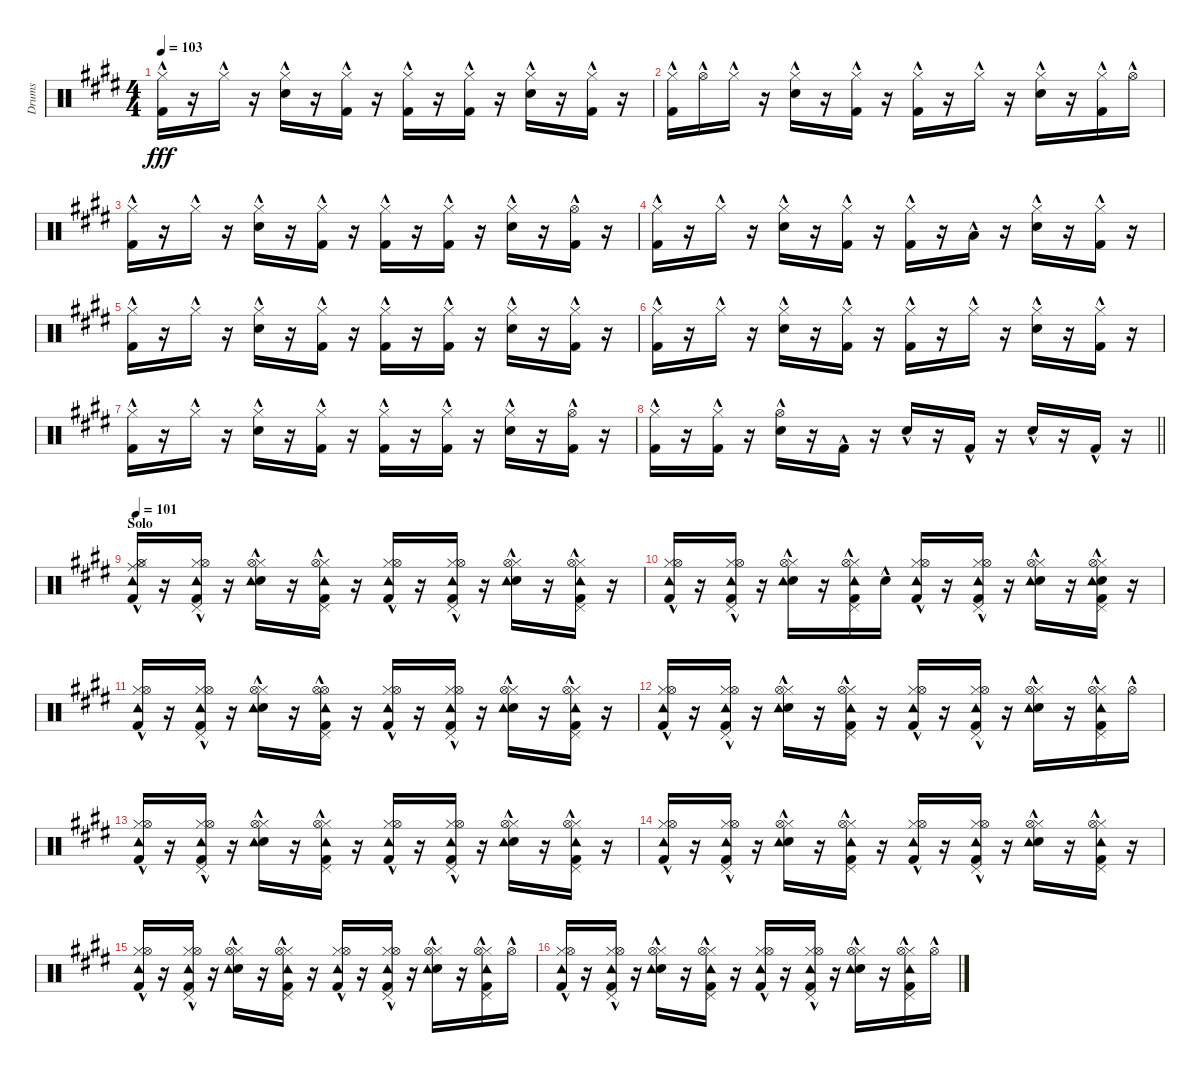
\track ("Drums" "Drums") {instrument percussion}
\staff {score}
\articulation defaults
\ts (4 4)
\tempo 103
\clef neutral
\ks e
("Kick (hit) 2"{hac} "Hi-Hat (closed)"{hac}).16{dy fff} r.16 "Hi-Hat (closed)"{hac}.16 r.16 ("Snare (hit) 2"{hac} "Hi-Hat (closed)"{hac}).16 r.16 ("Kick (hit) 2"{hac} "Hi-Hat (closed)"{hac}).16 r.16 ("Kick (hit) 2"{hac} "Hi-Hat (closed)"{hac}).16 r.16 ("Kick (hit) 2"{hac} "Hi-Hat (closed)"{hac}).16 r.16 ("Snare (hit) 2"{hac} "Hi-Hat (closed)"{hac}).16 r.16 ("Kick (hit) 2"{hac} "Hi-Hat (closed)"{hac}).16 r.16 |
("Kick (hit) 2"{hac} "Hi-Hat (closed)"{hac}).16 "Hi-Hat (open)"{hac}.16 "Hi-Hat (closed)"{hac}.16 r.16 ("Snare (hit) 2"{hac} "Hi-Hat (closed)"{hac}).16 r.16 ("Kick (hit) 2"{hac} "Hi-Hat (closed)"{hac}).16 r.16 ("Kick (hit) 2"{hac} "Hi-Hat (closed)"{hac}).16 r.16 "Hi-Hat (closed)"{hac}.16 r.16 ("Snare (hit) 2"{hac} "Hi-Hat (closed)"{hac}).16 r.16 ("Kick (hit) 2"{hac} "Hi-Hat (closed)"{hac}).16 "Hi-Hat (open)"{hac}.16 |
("Kick (hit) 2"{hac} "Hi-Hat (closed)"{hac}).16 r.16 "Hi-Hat (closed)"{hac}.16 r.16 ("Snare (hit) 2"{hac} "Hi-Hat (closed)"{hac}).16 r.16 ("Kick (hit) 2"{hac} "Hi-Hat (closed)"{hac}).16 r.16 ("Kick (hit) 2"{hac} "Hi-Hat (closed)"{hac}).16 r.16 ("Kick (hit) 2"{hac} "Hi-Hat (closed)"{hac}).16 r.16 ("Snare (hit) 2"{hac} "Hi-Hat (closed)"{hac}).16 r.16 ("Kick (hit) 2"{hac} "Hi-Hat (open)"{hac}).16 r.16 |
("Kick (hit) 2"{hac} "Hi-Hat (closed)"{hac}).16 r.16 "Hi-Hat (closed)"{hac}.16 r.16 ("Snare (hit) 2"{hac} "Hi-Hat (closed)"{hac}).16 r.16 ("Kick (hit) 2"{hac} "Hi-Hat (closed)"{hac}).16 r.16 ("Kick (hit) 2"{hac} "Hi-Hat (closed)"{hac}).16 r.16 "Low Floor Tom (hit)"{hac}.16 r.16 ("Snare (hit) 2"{hac} "Hi-Hat (closed)"{hac}).16 r.16 ("Kick (hit) 2"{hac} "Hi-Hat (closed)"{hac}).16 r.16 |
("Kick (hit) 2"{hac} "Hi-Hat (closed)"{hac}).16 r.16 "Hi-Hat (closed)"{hac}.16 r.16 ("Snare (hit) 2"{hac} "Hi-Hat (closed)"{hac}).16 r.16 ("Kick (hit) 2"{hac} "Hi-Hat (closed)"{hac}).16 r.16 ("Kick (hit) 2"{hac} "Hi-Hat (closed)"{hac}).16 r.16 ("Kick (hit) 2"{hac} "Hi-Hat (closed)"{hac}).16 r.16 ("Snare (hit) 2"{hac} "Hi-Hat (closed)"{hac}).16 r.16 ("Kick (hit) 2"{hac} "Hi-Hat (closed)"{hac}).16 r.16 |
("Kick (hit) 2"{hac} "Hi-Hat (closed)"{hac}).16 r.16 "Hi-Hat (closed)"{hac}.16 r.16 ("Snare (hit) 2"{hac} "Hi-Hat (closed)"{hac}).16 r.16 ("Kick (hit) 2"{hac} "Hi-Hat (closed)"{hac}).16 r.16 ("Kick (hit) 2"{hac} "Hi-Hat (closed)"{hac}).16 r.16 "Hi-Hat (closed)"{hac}.16 r.16 ("Snare (hit) 2"{hac} "Hi-Hat (closed)"{hac}).16 r.16 ("Kick (hit) 2"{hac} "Hi-Hat (closed)"{hac}).16 r.16 |
("Kick (hit) 2"{hac} "Hi-Hat (closed)"{hac}).16 r.16 "Hi-Hat (closed)"{hac}.16 r.16 ("Snare (hit) 2"{hac} "Hi-Hat (closed)"{hac}).16 r.16 ("Kick (hit) 2"{hac} "Hi-Hat (closed)"{hac}).16 r.16 ("Kick (hit) 2"{hac} "Hi-Hat (closed)"{hac}).16 r.16 ("Kick (hit) 2"{hac} "Hi-Hat (closed)"{hac}).16 r.16 ("Snare (hit) 2"{hac} "Hi-Hat (closed)"{hac}).16 r.16 ("Kick (hit) 2"{hac} "Hi-Hat (open)"{hac}).16 r.16 |
\barLineRight lightlight
("Kick (hit) 2"{hac} "Hi-Hat (closed)"{hac}).16 r.16 ("Kick (hit) 2"{hac} "Hi-Hat (closed)"{hac}).16 r.16 ("Snare (hit) 2"{hac} "Hi-Hat (open)"{hac}).16 r.16 "Kick (hit) 2"{hac}.16 r.16 "Snare (hit) 2"{hac}.16 r.16 "Kick (hit) 2"{hac}.16 r.16 "Snare (hit) 2"{hac}.16 r.16 "Kick (hit) 2"{hac}.16 r.16 |
\section ("" "Solo")
\tempo 101
("Kick (hit) 2"{hac} "Hi-Hat (closed)"{hac} "Ride (middle)"{hac} "Tambourine (hit)"{hac} "Hi-Hat (open)"{hac}).16 r.16 ("Kick (hit) 2"{hac} "Hi-Hat (closed)"{hac} "Tambourine (hit)"{hac} "Hi-Hat (open)"{hac} "Pedal Hi-Hat (hit)"{hac}).16 r.16 ("Snare (hit) 2"{hac} "Hi-Hat (closed)"{hac} "Tambourine (hit)"{hac} "Hi-Hat (open)"{hac}).16 r.16 ("Kick (hit) 2"{hac} "Hi-Hat (closed)"{hac} "Tambourine (hit)"{hac} "Hi-Hat (open)"{hac} "Pedal Hi-Hat (hit)"{hac}).16 r.16 ("Kick (hit) 2"{hac} "Hi-Hat (closed)"{hac} "Tambourine (hit)"{hac} "Hi-Hat (open)"{hac}).16 r.16 ("Kick (hit) 2"{hac} "Hi-Hat (closed)"{hac} "Tambourine (hit)"{hac} "Hi-Hat (open)"{hac} "Pedal Hi-Hat (hit)"{hac}).16 r.16 ("Snare (hit) 2"{hac} "Hi-Hat (closed)"{hac} "Tambourine (hit)"{hac} "Hi-Hat (open)"{hac}).16 r.16 ("Kick (hit) 2"{hac} "Hi-Hat (closed)"{hac} "Tambourine (hit)"{hac} "Hi-Hat (open)"{hac} "Pedal Hi-Hat (hit)"{hac}).16 r.16 |
("Kick (hit) 2"{hac} "Hi-Hat (closed)"{hac} "Tambourine (hit)"{hac} "Hi-Hat (open)"{hac}).16 r.16 ("Kick (hit) 2"{hac} "Hi-Hat (closed)"{hac} "Tambourine (hit)"{hac} "Hi-Hat (open)"{hac} "Pedal Hi-Hat (hit)"{hac}).16 r.16 ("Snare (hit) 2"{hac} "Hi-Hat (closed)"{hac} "Tambourine (hit)"{hac} "Hi-Hat (open)"{hac}).16 r.16 ("Kick (hit) 2"{hac} "Hi-Hat (closed)"{hac} "Tambourine (hit)"{hac} "Hi-Hat (open)"{hac} "Pedal Hi-Hat (hit)"{hac}).16 "Snare (hit) 2"{hac}.16 ("Kick (hit) 2"{hac} "Hi-Hat (closed)"{hac} "Tambourine (hit)"{hac} "Hi-Hat (open)"{hac}).16 r.16 ("Kick (hit) 2"{hac} "Hi-Hat (closed)"{hac} "Tambourine (hit)"{hac} "Hi-Hat (open)"{hac} "Pedal Hi-Hat (hit)"{hac}).16 r.16 ("Snare (hit) 2"{hac} "Hi-Hat (closed)"{hac} "Tambourine (hit)"{hac} "Hi-Hat (open)"{hac}).16 r.16 ("Kick (hit) 2"{hac} "Snare (hit) 2"{hac} "Hi-Hat (closed)"{hac} "Tambourine (hit)"{hac} "Hi-Hat (open)"{hac} "Pedal Hi-Hat (hit)"{hac}).16 r.16 |
("Kick (hit) 2"{hac} "Hi-Hat (closed)"{hac} "Tambourine (hit)"{hac} "Hi-Hat (open)"{hac}).16 r.16 ("Kick (hit) 2"{hac} "Hi-Hat (closed)"{hac} "Tambourine (hit)"{hac} "Hi-Hat (open)"{hac} "Pedal Hi-Hat (hit)"{hac}).16 r.16 ("Snare (hit) 2"{hac} "Hi-Hat (closed)"{hac} "Tambourine (hit)"{hac} "Hi-Hat (open)"{hac}).16 r.16 ("Kick (hit) 2"{hac} "Hi-Hat (open)"{hac} "Tambourine (hit)"{hac} "Hi-Hat (open)"{hac} "Pedal Hi-Hat (hit)"{hac}).16 r.16 ("Kick (hit) 2"{hac} "Hi-Hat (closed)"{hac} "Tambourine (hit)"{hac} "Hi-Hat (open)"{hac}).16 r.16 ("Kick (hit) 2"{hac} "Hi-Hat (closed)"{hac} "Tambourine (hit)"{hac} "Hi-Hat (open)"{hac} "Pedal Hi-Hat (hit)"{hac}).16 r.16 ("Snare (hit) 2"{hac} "Hi-Hat (closed)"{hac} "Tambourine (hit)"{hac} "Hi-Hat (open)"{hac}).16 r.16 ("Kick (hit) 2"{hac} "Hi-Hat (closed)"{hac} "Tambourine (hit)"{hac} "Hi-Hat (open)"{hac} "Pedal Hi-Hat (hit)"{hac}).16 r.16 |
("Kick (hit) 2"{hac} "Hi-Hat (closed)"{hac} "Tambourine (hit)"{hac} "Hi-Hat (open)"{hac}).16 r.16 ("Kick (hit) 2"{hac} "Hi-Hat (closed)"{hac} "Tambourine (hit)"{hac} "Hi-Hat (open)"{hac} "Pedal Hi-Hat (hit)"{hac}).16 r.16 ("Snare (hit) 2"{hac} "Hi-Hat (closed)"{hac} "Tambourine (hit)"{hac} "Hi-Hat (open)"{hac}).16 r.16 ("Kick (hit) 2"{hac} "Hi-Hat (closed)"{hac} "Tambourine (hit)"{hac} "Hi-Hat (open)"{hac} "Pedal Hi-Hat (hit)"{hac}).16 r.16 ("Kick (hit) 2"{hac} "Hi-Hat (closed)"{hac} "Tambourine (hit)"{hac} "Hi-Hat (open)"{hac}).16 r.16 ("Kick (hit) 2"{hac} "Hi-Hat (closed)"{hac} "Tambourine (hit)"{hac} "Hi-Hat (open)"{hac} "Pedal Hi-Hat (hit)"{hac}).16 r.16 ("Snare (hit) 2"{hac} "Hi-Hat (closed)"{hac} "Tambourine (hit)"{hac} "Hi-Hat (open)"{hac}).16 r.16 ("Kick (hit) 2"{hac} "Hi-Hat (closed)"{hac} "Tambourine (hit)"{hac} "Hi-Hat (open)"{hac} "Pedal Hi-Hat (hit)"{hac}).16 "Hi-Hat (open)"{hac}.16 |
("Kick (hit) 2"{hac} "Hi-Hat (closed)"{hac} "Tambourine (hit)"{hac} "Hi-Hat (open)"{hac}).16 r.16 ("Kick (hit) 2"{hac} "Hi-Hat (closed)"{hac} "Tambourine (hit)"{hac} "Hi-Hat (open)"{hac} "Pedal Hi-Hat (hit)"{hac}).16 r.16 ("Snare (hit) 2"{hac} "Hi-Hat (closed)"{hac} "Tambourine (hit)"{hac} "Hi-Hat (open)"{hac}).16 r.16 ("Kick (hit) 2"{hac} "Hi-Hat (closed)"{hac} "Tambourine (hit)"{hac} "Hi-Hat (open)"{hac} "Pedal Hi-Hat (hit)"{hac}).16 r.16 ("Kick (hit) 2"{hac} "Hi-Hat (closed)"{hac} "Tambourine (hit)"{hac} "Hi-Hat (open)"{hac}).16 r.16 ("Kick (hit) 2"{hac} "Hi-Hat (closed)"{hac} "Tambourine (hit)"{hac} "Hi-Hat (open)"{hac} "Pedal Hi-Hat (hit)"{hac}).16 r.16 ("Snare (hit) 2"{hac} "Hi-Hat (closed)"{hac} "Tambourine (hit)"{hac} "Hi-Hat (open)"{hac}).16 r.16 ("Kick (hit) 2"{hac} "Hi-Hat (closed)"{hac} "Tambourine (hit)"{hac} "Hi-Hat (open)"{hac} "Pedal Hi-Hat (hit)"{hac}).16 r.16 |
("Kick (hit) 2"{hac} "Hi-Hat (closed)"{hac} "Tambourine (hit)"{hac} "Hi-Hat (open)"{hac}).16 r.16 ("Kick (hit) 2"{hac} "Hi-Hat (closed)"{hac} "Tambourine (hit)"{hac} "Hi-Hat (open)"{hac} "Pedal Hi-Hat (hit)"{hac}).16 r.16 ("Snare (hit) 2"{hac} "Hi-Hat (closed)"{hac} "Tambourine (hit)"{hac} "Hi-Hat (open)"{hac}).16 r.16 ("Kick (hit) 2"{hac} "Hi-Hat (closed)"{hac} "Tambourine (hit)"{hac} "Hi-Hat (open)"{hac} "Pedal Hi-Hat (hit)"{hac}).16 r.16 ("Kick (hit) 2"{hac} "Hi-Hat (closed)"{hac} "Tambourine (hit)"{hac} "Hi-Hat (open)"{hac}).16 r.16 ("Kick (hit) 2"{hac} "Hi-Hat (closed)"{hac} "Tambourine (hit)"{hac} "Hi-Hat (open)"{hac} "Pedal Hi-Hat (hit)"{hac}).16 r.16 ("Snare (hit) 2"{hac} "Hi-Hat (closed)"{hac} "Tambourine (hit)"{hac} "Hi-Hat (open)"{hac}).16 r.16 ("Kick (hit) 2"{hac} "Hi-Hat (closed)"{hac} "Tambourine (hit)"{hac} "Hi-Hat (open)"{hac} "Pedal Hi-Hat (hit)"{hac}).16 r.16 |
("Kick (hit) 2"{hac} "Hi-Hat (closed)"{hac} "Tambourine (hit)"{hac} "Hi-Hat (open)"{hac}).16 r.16 ("Kick (hit) 2"{hac} "Hi-Hat (closed)"{hac} "Tambourine (hit)"{hac} "Hi-Hat (open)"{hac} "Pedal Hi-Hat (hit)"{hac}).16 r.16 ("Snare (hit) 2"{hac} "Hi-Hat (closed)"{hac} "Tambourine (hit)"{hac} "Hi-Hat (open)"{hac}).16 r.16 ("Kick (hit) 2"{hac} "Hi-Hat (closed)"{hac} "Tambourine (hit)"{hac} "Hi-Hat (open)"{hac} "Pedal Hi-Hat (hit)"{hac}).16 r.16 ("Kick (hit) 2"{hac} "Hi-Hat (closed)"{hac} "Tambourine (hit)"{hac} "Hi-Hat (open)"{hac}).16 r.16 ("Kick (hit) 2"{hac} "Hi-Hat (closed)"{hac} "Tambourine (hit)"{hac} "Hi-Hat (open)"{hac} "Pedal Hi-Hat (hit)"{hac}).16 r.16 ("Snare (hit) 2"{hac} "Hi-Hat (closed)"{hac} "Tambourine (hit)"{hac} "Hi-Hat (open)"{hac}).16 r.16 ("Kick (hit) 2"{hac} "Hi-Hat (closed)"{hac} "Tambourine (hit)"{hac} "Hi-Hat (open)"{hac} "Pedal Hi-Hat (hit)"{hac}).16 "Hi-Hat (open)"{hac}.16 |
("Kick (hit) 2"{hac} "Hi-Hat (closed)"{hac} "Tambourine (hit)"{hac} "Hi-Hat (open)"{hac}).16 r.16 ("Kick (hit) 2"{hac} "Hi-Hat (closed)"{hac} "Tambourine (hit)"{hac} "Hi-Hat (open)"{hac} "Pedal Hi-Hat (hit)"{hac}).16 r.16 ("Snare (hit) 2"{hac} "Hi-Hat (closed)"{hac} "Tambourine (hit)"{hac} "Hi-Hat (open)"{hac}).16 r.16 ("Kick (hit) 2"{hac} "Hi-Hat (closed)"{hac} "Tambourine (hit)"{hac} "Hi-Hat (open)"{hac} "Pedal Hi-Hat (hit)"{hac}).16 r.16 ("Kick (hit) 2"{hac} "Hi-Hat (closed)"{hac} "Tambourine (hit)"{hac} "Hi-Hat (open)"{hac}).16 r.16 ("Kick (hit) 2"{hac} "Hi-Hat (closed)"{hac} "Tambourine (hit)"{hac} "Hi-Hat (open)"{hac} "Pedal Hi-Hat (hit)"{hac}).16 r.16 ("Snare (hit) 2"{hac} "Hi-Hat (closed)"{hac} "Tambourine (hit)"{hac} "Hi-Hat (open)"{hac}).16 r.16 ("Kick (hit) 2"{hac} "Hi-Hat (closed)"{hac} "Tambourine (hit)"{hac} "Hi-Hat (open)"{hac} "Pedal Hi-Hat (hit)"{hac}).16 "Hi-Hat (open)"{hac}.16
